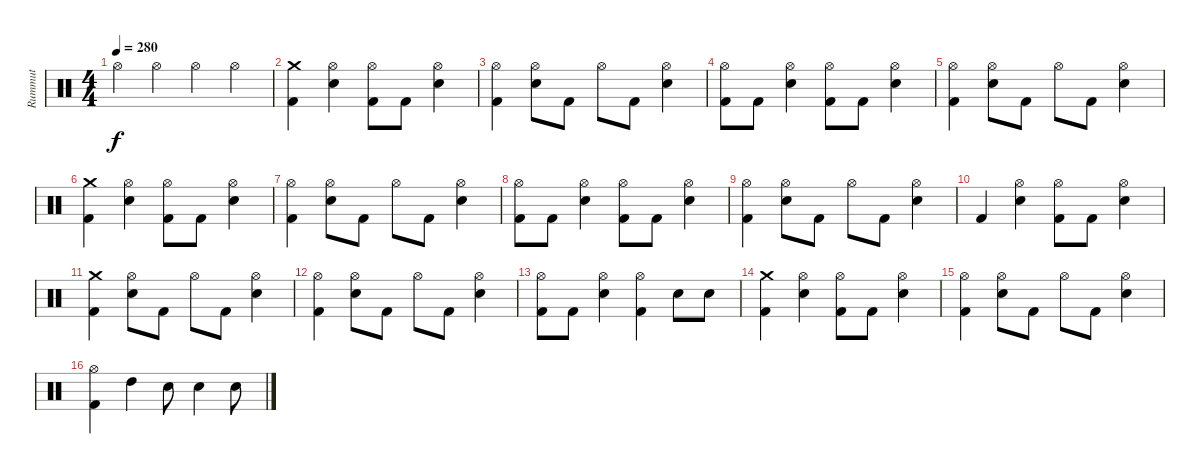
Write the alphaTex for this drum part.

\track ("Rummut" "Rummut") {instrument percussion}
\staff {score}
\articulation defaults
\ts (4 4)
\tempo 280
\clef neutral
\ks c "Hi-Hat (open)".4{dy f} "Hi-Hat (open)".4 "Hi-Hat (open)".4 "Hi-Hat (open)".4
|
("Crash medium (hit)" "Kick (hit) 2").4 ("Hi-Hat (open)" "Snare (hit) 2").4 ("Hi-Hat (open)" "Kick (hit) 2").8 "Kick (hit) 2".8 ("Hi-Hat (open)" "Snare (hit) 2").4 |
("Hi-Hat (open)" "Kick (hit) 2").4 ("Hi-Hat (open)" "Snare (hit) 2").8 "Kick (hit) 2".8 "Hi-Hat (open)".8 "Kick (hit) 2".8 ("Hi-Hat (open)" "Snare (hit) 2").4 |
("Hi-Hat (open)" "Kick (hit) 2").8 "Kick (hit) 2".8 ("Hi-Hat (open)" "Snare (hit) 2").4 ("Hi-Hat (open)" "Kick (hit) 2").8 "Kick (hit) 2".8 ("Hi-Hat (open)" "Snare (hit) 2").4 |
("Hi-Hat (open)" "Kick (hit) 2").4 ("Hi-Hat (open)" "Snare (hit) 2").8 "Kick (hit) 2".8 "Hi-Hat (open)".8 "Kick (hit) 2".8 ("Hi-Hat (open)" "Snare (hit) 2").4 |
("Crash medium (hit)" "Kick (hit) 2").4 ("Hi-Hat (open)" "Snare (hit) 2").4 ("Hi-Hat (open)" "Kick (hit) 2").8 "Kick (hit) 2".8 ("Hi-Hat (open)" "Snare (hit) 2").4 |
("Hi-Hat (open)" "Kick (hit) 2").4 ("Hi-Hat (open)" "Snare (hit) 2").8 "Kick (hit) 2".8 "Hi-Hat (open)".8 "Kick (hit) 2".8 ("Hi-Hat (open)" "Snare (hit) 2").4 |
("Hi-Hat (open)" "Kick (hit) 2").8 "Kick (hit) 2".8 ("Hi-Hat (open)" "Snare (hit) 2").4 ("Hi-Hat (open)" "Kick (hit) 2").8 "Kick (hit) 2".8 ("Hi-Hat (open)" "Snare (hit) 2").4 |
("Hi-Hat (open)" "Kick (hit) 2").4 ("Hi-Hat (open)" "Snare (hit) 2").8 "Kick (hit) 2".8 "Hi-Hat (open)".8 "Kick (hit) 2".8 ("Hi-Hat (open)" "Snare (hit) 2").4 |
"Kick (hit) 2".4 ("Hi-Hat (open)" "Snare (hit) 2").4 ("Hi-Hat (open)" "Kick (hit) 2").8 "Kick (hit) 2".8 ("Hi-Hat (open)" "Snare (hit) 2").4 |
("Crash medium (hit)" "Kick (hit) 2").4 ("Hi-Hat (open)" "Snare (hit) 2").8 "Kick (hit) 2".8 "Hi-Hat (open)".8 "Kick (hit) 2".8 ("Hi-Hat (open)" "Snare (hit) 2").4 |
("Hi-Hat (open)" "Kick (hit) 2").4 ("Hi-Hat (open)" "Snare (hit) 2").8 "Kick (hit) 2".8 "Hi-Hat (open)".8 "Kick (hit) 2".8 ("Hi-Hat (open)" "Snare (hit) 2").4 |
("Hi-Hat (open)" "Kick (hit) 2").8 "Kick (hit) 2".8 ("Hi-Hat (open)" "Snare (hit) 2").4 ("Hi-Hat (open)" "Kick (hit) 2").4 "Snare (hit) 2".8 "Snare (hit) 2".8 |
("Crash medium (hit)" "Kick (hit) 2").4 ("Hi-Hat (open)" "Snare (hit) 2").4 ("Hi-Hat (open)" "Kick (hit) 2").8 "Kick (hit) 2".8 ("Hi-Hat (open)" "Snare (hit) 2").4 |
("Hi-Hat (open)" "Kick (hit) 2").4 ("Hi-Hat (open)" "Snare (hit) 2").8 "Kick (hit) 2".8 "Hi-Hat (open)".8 "Kick (hit) 2".8 ("Hi-Hat (open)" "Snare (hit) 2").4 |
("Hi-Hat (open)" "Kick (hit) 2").4 "High Tom (hit)".4 "Snare (hit) 2".8 "Snare (hit) 2".4 "Snare (hit) 2".8
